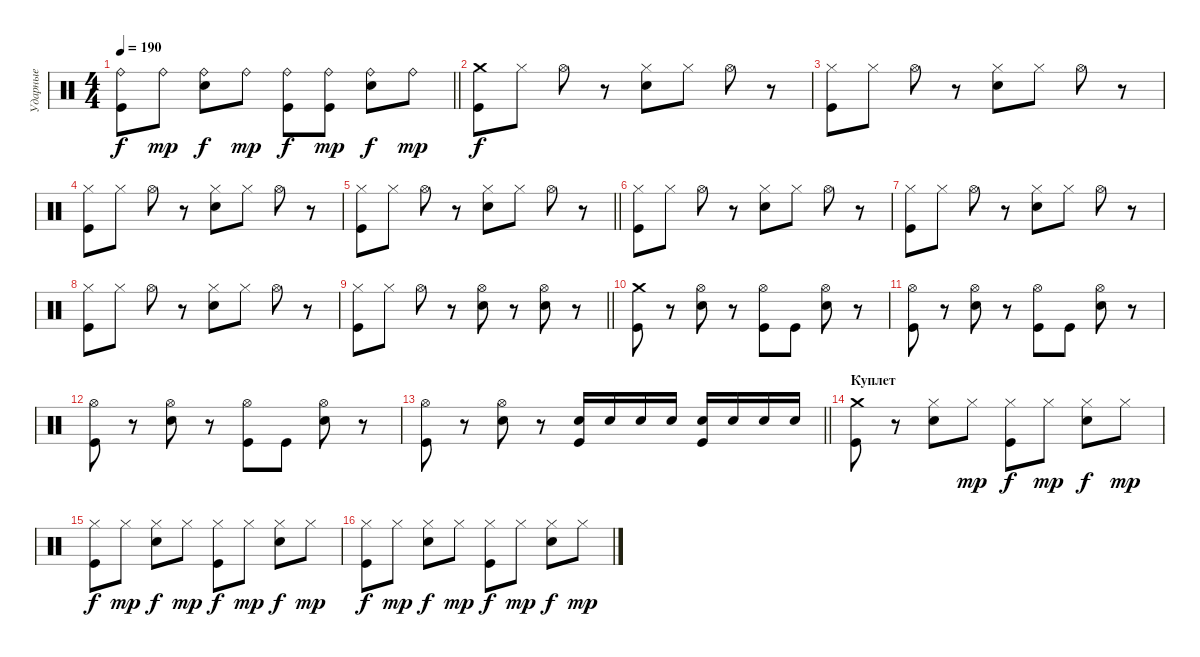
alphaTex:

\track ("Ударные" "Ударные") {instrument percussion}
\staff {score}
\articulation defaults
\ts (4 4)
\tempo 190
\clef neutral
\barLineRight lightlight
\ks c
("Ride (bell)" "Kick (hit)").8{dy f} "Ride (bell)".8{dy mp} ("Ride (bell)" "Electric Snare (hit)").8{dy f} "Ride (bell)".8{dy mp} ("Ride (bell)" "Kick (hit)").8{dy f} ("Ride (bell)" "Kick (hit)").8{dy mp} ("Ride (bell)" "Electric Snare (hit)").8{dy f} "Ride (bell)".8{dy mp} |
\section ("" " ")
("Crash medium (hit)" "Kick (hit)").8{dy f} "Hi-Hat (closed)".8 "Hi-Hat (open)".8 r.8 ("Hi-Hat (closed)" "Electric Snare (hit)").8 "Hi-Hat (closed)".8 "Hi-Hat (open)".8 r.8 |
("Hi-Hat (closed)" "Kick (hit)").8 "Hi-Hat (closed)".8 "Hi-Hat (open)".8 r.8 ("Hi-Hat (closed)" "Electric Snare (hit)").8 "Hi-Hat (closed)".8 "Hi-Hat (open)".8 r.8 |
("Hi-Hat (closed)" "Kick (hit)").8 "Hi-Hat (closed)".8 "Hi-Hat (open)".8 r.8 ("Hi-Hat (closed)" "Electric Snare (hit)").8 "Hi-Hat (closed)".8 "Hi-Hat (open)".8 r.8 |
\barLineRight lightlight
("Hi-Hat (closed)" "Kick (hit)").8 "Hi-Hat (closed)".8 "Hi-Hat (open)".8 r.8 ("Hi-Hat (closed)" "Electric Snare (hit)").8 "Hi-Hat (closed)".8 "Hi-Hat (open)".8 r.8 |
("Hi-Hat (closed)" "Kick (hit)").8 "Hi-Hat (closed)".8 "Hi-Hat (open)".8 r.8 ("Hi-Hat (closed)" "Electric Snare (hit)").8 "Hi-Hat (closed)".8 "Hi-Hat (open)".8 r.8 |
("Hi-Hat (closed)" "Kick (hit)").8 "Hi-Hat (closed)".8 "Hi-Hat (open)".8 r.8 ("Hi-Hat (closed)" "Electric Snare (hit)").8 "Hi-Hat (closed)".8 "Hi-Hat (open)".8 r.8 |
("Hi-Hat (closed)" "Kick (hit)").8 "Hi-Hat (closed)".8 "Hi-Hat (open)".8 r.8 ("Hi-Hat (closed)" "Electric Snare (hit)").8 "Hi-Hat (closed)".8 "Hi-Hat (open)".8 r.8 |
\barLineRight lightlight
("Hi-Hat (closed)" "Kick (hit)").8 "Hi-Hat (closed)".8 "Hi-Hat (open)".8 r.8 ("Hi-Hat (open)" "Electric Snare (hit)").8 r.8 ("Hi-Hat (open)" "Electric Snare (hit)").8 r.8 |
\section ("" " ")
("Crash medium (hit)" "Kick (hit)").8 r.8 ("Hi-Hat (open)" "Electric Snare (hit)").8 r.8 ("Hi-Hat (open)" "Kick (hit)").8 "Kick (hit)".8 ("Hi-Hat (open)" "Electric Snare (hit)").8 r.8 |
("Hi-Hat (open)" "Kick (hit)").8 r.8 ("Hi-Hat (open)" "Electric Snare (hit)").8 r.8 ("Hi-Hat (open)" "Kick (hit)").8 "Kick (hit)".8 ("Hi-Hat (open)" "Electric Snare (hit)").8 r.8 |
("Hi-Hat (open)" "Kick (hit)").8 r.8 ("Hi-Hat (open)" "Electric Snare (hit)").8 r.8 ("Hi-Hat (open)" "Kick (hit)").8 "Kick (hit)".8 ("Hi-Hat (open)" "Electric Snare (hit)").8 r.8 |
\barLineRight lightlight
("Hi-Hat (open)" "Kick (hit)").8 r.8 ("Hi-Hat (open)" "Electric Snare (hit)").8 r.8 ("Electric Snare (hit)" "Kick (hit)").16 "Electric Snare (hit)".16 "Electric Snare (hit)".16 "Electric Snare (hit)".16 ("Electric Snare (hit)" "Kick (hit)").16 "Electric Snare (hit)".16 "Electric Snare (hit)".16 "Electric Snare (hit)".16 |
\section ("" "Куплет")
("Crash medium (hit)" "Kick (hit)").8 r.8 ("Hi-Hat (closed)" "Electric Snare (hit)").8 "Hi-Hat (closed)".8{dy mp} ("Hi-Hat (closed)" "Kick (hit)").8{dy f} "Hi-Hat (closed)".8{dy mp} ("Hi-Hat (closed)" "Electric Snare (hit)").8{dy f} "Hi-Hat (closed)".8{dy mp} |
("Hi-Hat (closed)" "Kick (hit)").8{dy f} "Hi-Hat (closed)".8{dy mp} ("Hi-Hat (closed)" "Electric Snare (hit)").8{dy f} "Hi-Hat (closed)".8{dy mp} ("Hi-Hat (closed)" "Kick (hit)").8{dy f} "Hi-Hat (closed)".8{dy mp} ("Hi-Hat (closed)" "Electric Snare (hit)").8{dy f} "Hi-Hat (closed)".8{dy mp} |
("Hi-Hat (closed)" "Kick (hit)").8{dy f} "Hi-Hat (closed)".8{dy mp} ("Hi-Hat (closed)" "Electric Snare (hit)").8{dy f} "Hi-Hat (closed)".8{dy mp} ("Hi-Hat (closed)" "Kick (hit)").8{dy f} "Hi-Hat (closed)".8{dy mp} ("Hi-Hat (closed)" "Electric Snare (hit)").8{dy f} "Hi-Hat (closed)".8{dy mp}
